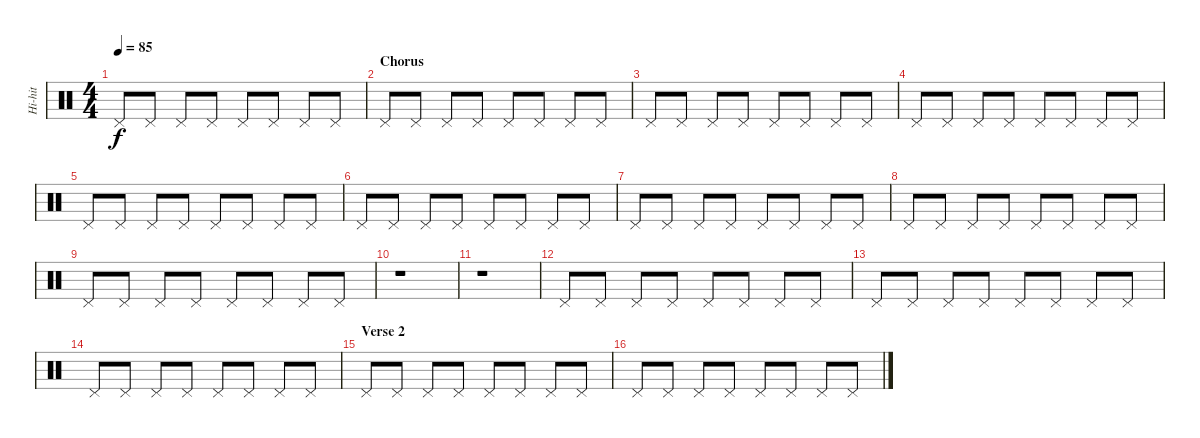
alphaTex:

\track ("Hi-hit" "Hi-hit") {instrument percussion}
\staff {score}
\articulation defaults
\ts (4 4)
\tempo 85
\clef neutral
\ks c "Pedal Hi-Hat (hit)".8{dy f} "Pedal Hi-Hat (hit)".8 "Pedal Hi-Hat (hit)".8 "Pedal Hi-Hat (hit)".8 "Pedal Hi-Hat (hit)".8 "Pedal Hi-Hat (hit)".8 "Pedal Hi-Hat (hit)".8 "Pedal Hi-Hat (hit)".8
|
\section ("" "Chorus")
"Pedal Hi-Hat (hit)".8 "Pedal Hi-Hat (hit)".8 "Pedal Hi-Hat (hit)".8 "Pedal Hi-Hat (hit)".8 "Pedal Hi-Hat (hit)".8 "Pedal Hi-Hat (hit)".8 "Pedal Hi-Hat (hit)".8 "Pedal Hi-Hat (hit)".8 |
"Pedal Hi-Hat (hit)".8 "Pedal Hi-Hat (hit)".8 "Pedal Hi-Hat (hit)".8 "Pedal Hi-Hat (hit)".8 "Pedal Hi-Hat (hit)".8 "Pedal Hi-Hat (hit)".8 "Pedal Hi-Hat (hit)".8 "Pedal Hi-Hat (hit)".8 |
"Pedal Hi-Hat (hit)".8 "Pedal Hi-Hat (hit)".8 "Pedal Hi-Hat (hit)".8 "Pedal Hi-Hat (hit)".8 "Pedal Hi-Hat (hit)".8 "Pedal Hi-Hat (hit)".8 "Pedal Hi-Hat (hit)".8 "Pedal Hi-Hat (hit)".8 |
"Pedal Hi-Hat (hit)".8 "Pedal Hi-Hat (hit)".8 "Pedal Hi-Hat (hit)".8 "Pedal Hi-Hat (hit)".8 "Pedal Hi-Hat (hit)".8 "Pedal Hi-Hat (hit)".8 "Pedal Hi-Hat (hit)".8 "Pedal Hi-Hat (hit)".8 |
"Pedal Hi-Hat (hit)".8 "Pedal Hi-Hat (hit)".8 "Pedal Hi-Hat (hit)".8 "Pedal Hi-Hat (hit)".8 "Pedal Hi-Hat (hit)".8 "Pedal Hi-Hat (hit)".8 "Pedal Hi-Hat (hit)".8 "Pedal Hi-Hat (hit)".8 |
"Pedal Hi-Hat (hit)".8 "Pedal Hi-Hat (hit)".8 "Pedal Hi-Hat (hit)".8 "Pedal Hi-Hat (hit)".8 "Pedal Hi-Hat (hit)".8 "Pedal Hi-Hat (hit)".8 "Pedal Hi-Hat (hit)".8 "Pedal Hi-Hat (hit)".8 |
"Pedal Hi-Hat (hit)".8 "Pedal Hi-Hat (hit)".8 "Pedal Hi-Hat (hit)".8 "Pedal Hi-Hat (hit)".8 "Pedal Hi-Hat (hit)".8 "Pedal Hi-Hat (hit)".8 "Pedal Hi-Hat (hit)".8 "Pedal Hi-Hat (hit)".8 |
"Pedal Hi-Hat (hit)".8 "Pedal Hi-Hat (hit)".8 "Pedal Hi-Hat (hit)".8 "Pedal Hi-Hat (hit)".8 "Pedal Hi-Hat (hit)".8 "Pedal Hi-Hat (hit)".8 "Pedal Hi-Hat (hit)".8 "Pedal Hi-Hat (hit)".8 |
r.1 |
r.1 |
"Pedal Hi-Hat (hit)".8 "Pedal Hi-Hat (hit)".8 "Pedal Hi-Hat (hit)".8 "Pedal Hi-Hat (hit)".8 "Pedal Hi-Hat (hit)".8 "Pedal Hi-Hat (hit)".8 "Pedal Hi-Hat (hit)".8 "Pedal Hi-Hat (hit)".8 |
"Pedal Hi-Hat (hit)".8 "Pedal Hi-Hat (hit)".8 "Pedal Hi-Hat (hit)".8 "Pedal Hi-Hat (hit)".8 "Pedal Hi-Hat (hit)".8 "Pedal Hi-Hat (hit)".8 "Pedal Hi-Hat (hit)".8 "Pedal Hi-Hat (hit)".8 |
"Pedal Hi-Hat (hit)".8 "Pedal Hi-Hat (hit)".8 "Pedal Hi-Hat (hit)".8 "Pedal Hi-Hat (hit)".8 "Pedal Hi-Hat (hit)".8 "Pedal Hi-Hat (hit)".8 "Pedal Hi-Hat (hit)".8 "Pedal Hi-Hat (hit)".8 |
\section ("" "Verse 2")
"Pedal Hi-Hat (hit)".8 "Pedal Hi-Hat (hit)".8 "Pedal Hi-Hat (hit)".8 "Pedal Hi-Hat (hit)".8 "Pedal Hi-Hat (hit)".8 "Pedal Hi-Hat (hit)".8 "Pedal Hi-Hat (hit)".8 "Pedal Hi-Hat (hit)".8 |
"Pedal Hi-Hat (hit)".8 "Pedal Hi-Hat (hit)".8 "Pedal Hi-Hat (hit)".8 "Pedal Hi-Hat (hit)".8 "Pedal Hi-Hat (hit)".8 "Pedal Hi-Hat (hit)".8 "Pedal Hi-Hat (hit)".8 "Pedal Hi-Hat (hit)".8
